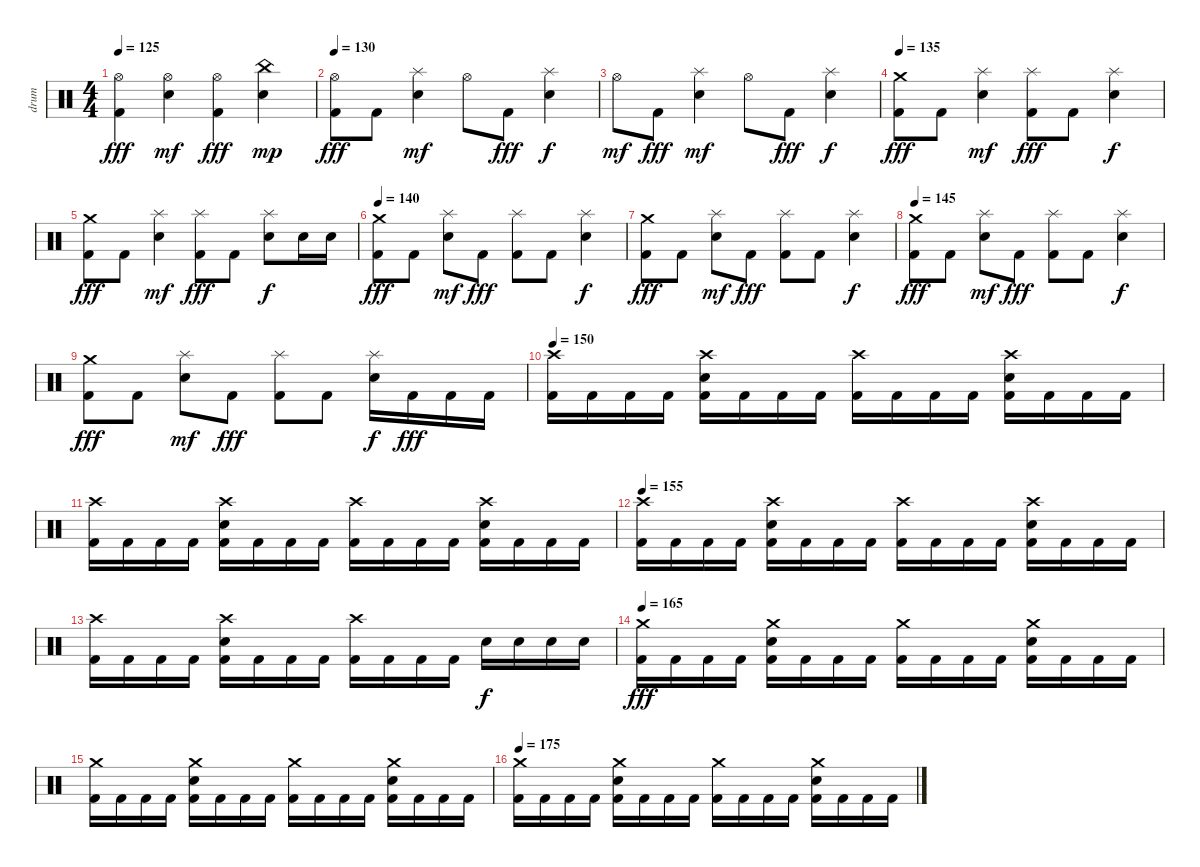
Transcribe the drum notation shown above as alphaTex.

\track ("drum" "drum") {instrument percussion}
\staff {score}
\articulation defaults
\ts (4 4)
\tempo 125
\clef neutral
\ks c
("Hi-Hat (open)" "Kick (hit) 2").4{dy fff} ("Hi-Hat (open)" "Electric Snare (hit)").4{dy mf} ("Hi-Hat (open)" "Kick (hit) 2").4{dy fff} ("China (hit)" "Electric Snare (hit)").4{dy mp} |
\tempo 130
("Hi-Hat (open)" "Kick (hit) 2").8{dy fff} "Kick (hit) 2".8 ("Splash (hit)" "Electric Snare (hit)").4{dy mf} "Hi-Hat (open)".8 "Kick (hit) 2".8{dy fff} ("Splash (hit)" "Electric Snare (hit)").4{dy f} |
"Hi-Hat (open)".8{dy mf} "Kick (hit) 2".8{dy fff} ("Splash (hit)" "Electric Snare (hit)").4{dy mf} "Hi-Hat (open)".8 "Kick (hit) 2".8{dy fff} ("Splash (hit)" "Electric Snare (hit)").4{dy f} |
\tempo 135
("Crash medium (hit)" "Kick (hit) 2").8{dy fff} "Kick (hit) 2".8 ("Splash (hit)" "Electric Snare (hit)").4{dy mf} ("Splash (hit)" "Kick (hit) 2").8{dy fff} "Kick (hit) 2".8 ("Splash (hit)" "Electric Snare (hit)").4{dy f} |
("Crash medium (hit)" "Kick (hit) 2").8{dy fff} "Kick (hit) 2".8 ("Splash (hit)" "Electric Snare (hit)").4{dy mf} ("Splash (hit)" "Kick (hit) 2").8{dy fff} "Kick (hit) 2".8 ("Splash (hit)" "Electric Snare (hit)").8{dy f} "Electric Snare (hit)".16 "Electric Snare (hit)".16 |
\tempo 140
("Crash medium (hit)" "Kick (hit) 2").8{dy fff} "Kick (hit) 2".8 ("Splash (hit)" "Electric Snare (hit)").8{dy mf} "Kick (hit) 2".8{dy fff} ("Splash (hit)" "Kick (hit) 2").8 "Kick (hit) 2".8 ("Splash (hit)" "Electric Snare (hit)").4{dy f} |
("Crash medium (hit)" "Kick (hit) 2").8{dy fff} "Kick (hit) 2".8 ("Splash (hit)" "Electric Snare (hit)").8{dy mf} "Kick (hit) 2".8{dy fff} ("Splash (hit)" "Kick (hit) 2").8 "Kick (hit) 2".8 ("Splash (hit)" "Electric Snare (hit)").4{dy f} |
\tempo 145
("Crash medium (hit)" "Kick (hit) 2").8{dy fff} "Kick (hit) 2".8 ("Splash (hit)" "Electric Snare (hit)").8{dy mf} "Kick (hit) 2".8{dy fff} ("Splash (hit)" "Kick (hit) 2").8 "Kick (hit) 2".8 ("Splash (hit)" "Electric Snare (hit)").4{dy f} |
("Crash medium (hit)" "Kick (hit) 2").8{dy fff} "Kick (hit) 2".8 ("Splash (hit)" "Electric Snare (hit)").8{dy mf} "Kick (hit) 2".8{dy fff} ("Splash (hit)" "Kick (hit) 2").8 "Kick (hit) 2".8 ("Splash (hit)" "Electric Snare (hit)").16{dy f} "Kick (hit) 2".16{dy fff} "Kick (hit) 2".16 "Kick (hit) 2".16 |
\tempo 150
("Crash high (hit)" "Kick (hit) 2").16 "Kick (hit) 2".16 "Kick (hit) 2".16 "Kick (hit) 2".16 ("Crash high (hit)" "Electric Snare (hit)" "Kick (hit) 2").16 "Kick (hit) 2".16 "Kick (hit) 2".16 "Kick (hit) 2".16 ("Crash high (hit)" "Kick (hit) 2").16 "Kick (hit) 2".16 "Kick (hit) 2".16 "Kick (hit) 2".16 ("Crash high (hit)" "Electric Snare (hit)" "Kick (hit) 2").16 "Kick (hit) 2".16 "Kick (hit) 2".16 "Kick (hit) 2".16 |
("Crash high (hit)" "Kick (hit) 2").16 "Kick (hit) 2".16 "Kick (hit) 2".16 "Kick (hit) 2".16 ("Crash high (hit)" "Electric Snare (hit)" "Kick (hit) 2").16 "Kick (hit) 2".16 "Kick (hit) 2".16 "Kick (hit) 2".16 ("Crash high (hit)" "Kick (hit) 2").16 "Kick (hit) 2".16 "Kick (hit) 2".16 "Kick (hit) 2".16 ("Crash high (hit)" "Electric Snare (hit)" "Kick (hit) 2").16 "Kick (hit) 2".16 "Kick (hit) 2".16 "Kick (hit) 2".16 |
\tempo 155
("Crash high (hit)" "Kick (hit) 2").16 "Kick (hit) 2".16 "Kick (hit) 2".16 "Kick (hit) 2".16 ("Crash high (hit)" "Electric Snare (hit)" "Kick (hit) 2").16 "Kick (hit) 2".16 "Kick (hit) 2".16 "Kick (hit) 2".16 ("Crash high (hit)" "Kick (hit) 2").16 "Kick (hit) 2".16 "Kick (hit) 2".16 "Kick (hit) 2".16 ("Crash high (hit)" "Electric Snare (hit)" "Kick (hit) 2").16 "Kick (hit) 2".16 "Kick (hit) 2".16 "Kick (hit) 2".16 |
("Crash high (hit)" "Kick (hit) 2").16 "Kick (hit) 2".16 "Kick (hit) 2".16 "Kick (hit) 2".16 ("Crash high (hit)" "Electric Snare (hit)" "Kick (hit) 2").16 "Kick (hit) 2".16 "Kick (hit) 2".16 "Kick (hit) 2".16 ("Crash high (hit)" "Kick (hit) 2").16 "Kick (hit) 2".16 "Kick (hit) 2".16 "Kick (hit) 2".16 "Electric Snare (hit)".16{dy f} "Electric Snare (hit)".16 "Electric Snare (hit)".16 "Electric Snare (hit)".16 |
\tempo 165
("Crash medium (hit)" "Kick (hit) 2").16{dy fff} "Kick (hit) 2".16 "Kick (hit) 2".16 "Kick (hit) 2".16 ("Crash medium (hit)" "Electric Snare (hit)" "Kick (hit) 2").16 "Kick (hit) 2".16 "Kick (hit) 2".16 "Kick (hit) 2".16 ("Crash medium (hit)" "Kick (hit) 2").16 "Kick (hit) 2".16 "Kick (hit) 2".16 "Kick (hit) 2".16 ("Crash medium (hit)" "Electric Snare (hit)" "Kick (hit) 2").16 "Kick (hit) 2".16 "Kick (hit) 2".16 "Kick (hit) 2".16 |
("Crash medium (hit)" "Kick (hit) 2").16 "Kick (hit) 2".16 "Kick (hit) 2".16 "Kick (hit) 2".16 ("Crash medium (hit)" "Electric Snare (hit)" "Kick (hit) 2").16 "Kick (hit) 2".16 "Kick (hit) 2".16 "Kick (hit) 2".16 ("Crash medium (hit)" "Kick (hit) 2").16 "Kick (hit) 2".16 "Kick (hit) 2".16 "Kick (hit) 2".16 ("Crash medium (hit)" "Electric Snare (hit)" "Kick (hit) 2").16 "Kick (hit) 2".16 "Kick (hit) 2".16 "Kick (hit) 2".16 |
\tempo 175
("Crash medium (hit)" "Kick (hit) 2").16 "Kick (hit) 2".16 "Kick (hit) 2".16 "Kick (hit) 2".16 ("Crash medium (hit)" "Electric Snare (hit)" "Kick (hit) 2").16 "Kick (hit) 2".16 "Kick (hit) 2".16 "Kick (hit) 2".16 ("Crash medium (hit)" "Kick (hit) 2").16 "Kick (hit) 2".16 "Kick (hit) 2".16 "Kick (hit) 2".16 ("Crash medium (hit)" "Electric Snare (hit)" "Kick (hit) 2").16 "Kick (hit) 2".16 "Kick (hit) 2".16 "Kick (hit) 2".16
